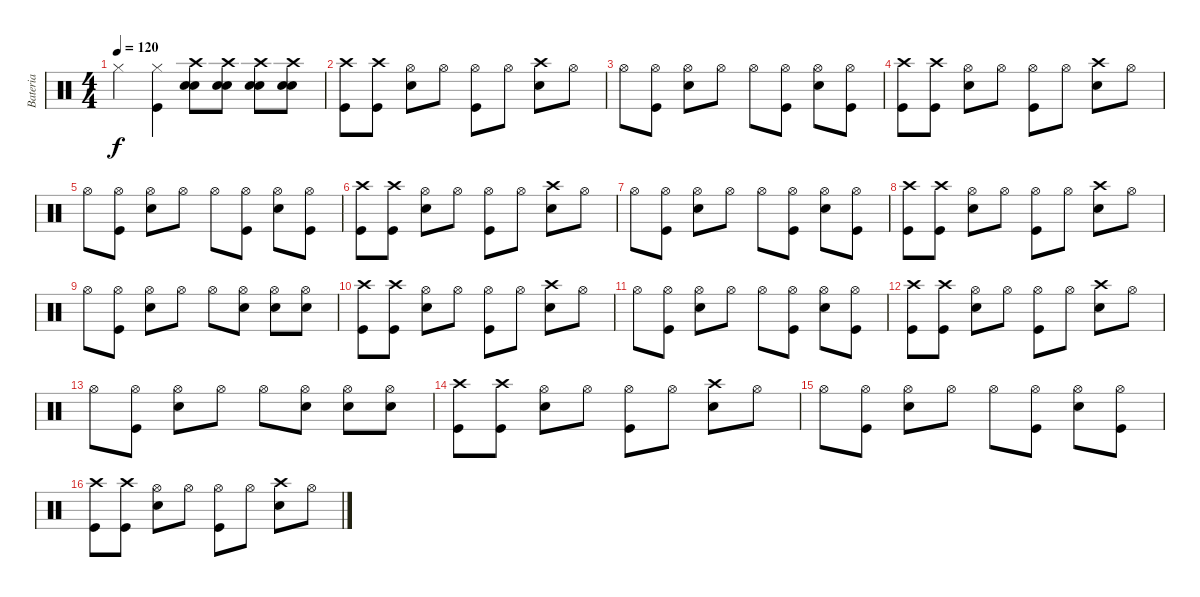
\track ("Bateria" "Bateria") {instrument percussion}
\staff {score}
\articulation defaults
\ts (4 4)
\tempo 120
\clef neutral
\ks c "Hi-Hat (closed)".4{dy f}
("Kick (hit)" "Hi-Hat (closed)").4 ("Electric Snare (hit)" "Electric Snare (hit)" "Crash high (hit)").8 ("Electric Snare (hit)" "Electric Snare (hit)" "Crash high (hit)").8 ("Electric Snare (hit)" "Electric Snare (hit)" "Crash high (hit)").8 ("Electric Snare (hit)" "Electric Snare (hit)" "Crash high (hit)").8 |
("Kick (hit)" "Crash high (hit)").8 ("Kick (hit)" "Crash high (hit)").8 ("Electric Snare (hit)" "Hi-Hat (open)").8 "Hi-Hat (open)".8 ("Kick (hit)" "Hi-Hat (open)").8 "Hi-Hat (open)".8 ("Electric Snare (hit)" "Crash high (hit)").8 "Hi-Hat (open)".8 |
"Hi-Hat (open)".8 ("Kick (hit)" "Hi-Hat (open)").8 ("Electric Snare (hit)" "Hi-Hat (open)").8 "Hi-Hat (open)".8 "Hi-Hat (open)".8 ("Kick (hit)" "Hi-Hat (open)").8 ("Electric Snare (hit)" "Hi-Hat (open)").8 ("Kick (hit)" "Hi-Hat (open)").8 |
("Kick (hit)" "Crash high (hit)").8 ("Kick (hit)" "Crash high (hit)").8 ("Electric Snare (hit)" "Hi-Hat (open)").8 "Hi-Hat (open)".8 ("Kick (hit)" "Hi-Hat (open)").8 "Hi-Hat (open)".8 ("Electric Snare (hit)" "Crash high (hit)").8 "Hi-Hat (open)".8 |
"Hi-Hat (open)".8 ("Kick (hit)" "Hi-Hat (open)").8 ("Electric Snare (hit)" "Hi-Hat (open)").8 "Hi-Hat (open)".8 "Hi-Hat (open)".8 ("Kick (hit)" "Hi-Hat (open)").8 ("Electric Snare (hit)" "Hi-Hat (open)").8 ("Kick (hit)" "Hi-Hat (open)").8 |
("Kick (hit)" "Crash high (hit)").8 ("Kick (hit)" "Crash high (hit)").8 ("Electric Snare (hit)" "Hi-Hat (open)").8 "Hi-Hat (open)".8 ("Kick (hit)" "Hi-Hat (open)").8 "Hi-Hat (open)".8 ("Electric Snare (hit)" "Crash high (hit)").8 "Hi-Hat (open)".8 |
"Hi-Hat (open)".8 ("Kick (hit)" "Hi-Hat (open)").8 ("Electric Snare (hit)" "Hi-Hat (open)").8 "Hi-Hat (open)".8 "Hi-Hat (open)".8 ("Kick (hit)" "Hi-Hat (open)").8 ("Electric Snare (hit)" "Hi-Hat (open)").8 ("Kick (hit)" "Hi-Hat (open)").8 |
("Kick (hit)" "Crash high (hit)").8 ("Kick (hit)" "Crash high (hit)").8 ("Electric Snare (hit)" "Hi-Hat (open)").8 "Hi-Hat (open)".8 ("Kick (hit)" "Hi-Hat (open)").8 "Hi-Hat (open)".8 ("Electric Snare (hit)" "Crash high (hit)").8 "Hi-Hat (open)".8 |
"Hi-Hat (open)".8 ("Kick (hit)" "Hi-Hat (open)").8 ("Electric Snare (hit)" "Hi-Hat (open)").8 "Hi-Hat (open)".8 "Hi-Hat (open)".8 ("Electric Snare (hit)" "Hi-Hat (open)").8 ("Electric Snare (hit)" "Hi-Hat (open)").8 ("Electric Snare (hit)" "Hi-Hat (open)").8 |
("Kick (hit)" "Crash high (hit)").8 ("Kick (hit)" "Crash high (hit)").8 ("Electric Snare (hit)" "Hi-Hat (open)").8 "Hi-Hat (open)".8 ("Kick (hit)" "Hi-Hat (open)").8 "Hi-Hat (open)".8 ("Electric Snare (hit)" "Crash high (hit)").8 "Hi-Hat (open)".8 |
"Hi-Hat (open)".8 ("Kick (hit)" "Hi-Hat (open)").8 ("Electric Snare (hit)" "Hi-Hat (open)").8 "Hi-Hat (open)".8 "Hi-Hat (open)".8 ("Kick (hit)" "Hi-Hat (open)").8 ("Electric Snare (hit)" "Hi-Hat (open)").8 ("Kick (hit)" "Hi-Hat (open)").8 |
("Kick (hit)" "Crash high (hit)").8 ("Kick (hit)" "Crash high (hit)").8 ("Electric Snare (hit)" "Hi-Hat (open)").8 "Hi-Hat (open)".8 ("Kick (hit)" "Hi-Hat (open)").8 "Hi-Hat (open)".8 ("Electric Snare (hit)" "Crash high (hit)").8 "Hi-Hat (open)".8 |
"Hi-Hat (open)".8 ("Kick (hit)" "Hi-Hat (open)").8 ("Electric Snare (hit)" "Hi-Hat (open)").8 "Hi-Hat (open)".8 "Hi-Hat (open)".8 ("Electric Snare (hit)" "Hi-Hat (open)").8 ("Electric Snare (hit)" "Hi-Hat (open)").8 ("Electric Snare (hit)" "Hi-Hat (open)").8 |
("Kick (hit)" "Crash high (hit)").8 ("Kick (hit)" "Crash high (hit)").8 ("Electric Snare (hit)" "Hi-Hat (open)").8 "Hi-Hat (open)".8 ("Kick (hit)" "Hi-Hat (open)").8 "Hi-Hat (open)".8 ("Electric Snare (hit)" "Crash high (hit)").8 "Hi-Hat (open)".8 |
"Hi-Hat (open)".8 ("Kick (hit)" "Hi-Hat (open)").8 ("Electric Snare (hit)" "Hi-Hat (open)").8 "Hi-Hat (open)".8 "Hi-Hat (open)".8 ("Kick (hit)" "Hi-Hat (open)").8 ("Electric Snare (hit)" "Hi-Hat (open)").8 ("Kick (hit)" "Hi-Hat (open)").8 |
("Kick (hit)" "Crash high (hit)").8 ("Kick (hit)" "Crash high (hit)").8 ("Electric Snare (hit)" "Hi-Hat (open)").8 "Hi-Hat (open)".8 ("Kick (hit)" "Hi-Hat (open)").8 "Hi-Hat (open)".8 ("Electric Snare (hit)" "Crash high (hit)").8 "Hi-Hat (open)".8
